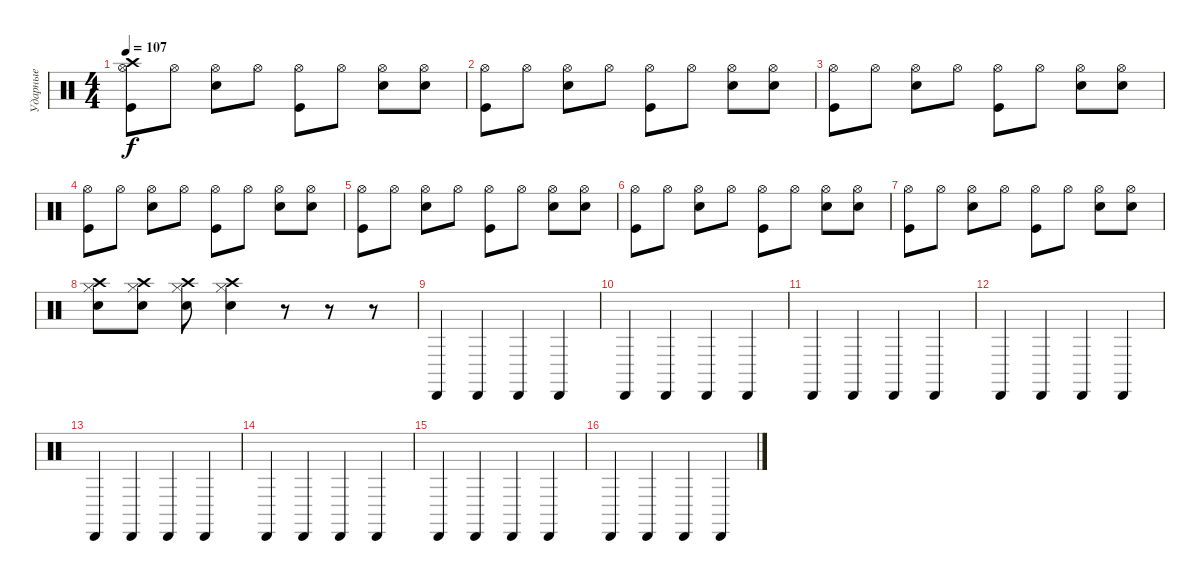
\track ("Ударные" "Ударные") {instrument percussion}
\staff {score}
\articulation defaults
\ts (4 4)
\tempo 107
\clef neutral
\ks c
("Crash high (hit)" "Hi-Hat (open)" "Kick (hit)").8{dy f} "Hi-Hat (open)".8 ("Hi-Hat (open)" "Electric Snare (hit)").8 "Hi-Hat (open)".8 ("Hi-Hat (open)" "Kick (hit)").8 "Hi-Hat (open)".8 ("Hi-Hat (open)" "Electric Snare (hit)").8 ("Hi-Hat (open)" "Electric Snare (hit)").8 |
("Hi-Hat (open)" "Kick (hit)").8 "Hi-Hat (open)".8 ("Hi-Hat (open)" "Electric Snare (hit)").8 "Hi-Hat (open)".8 ("Hi-Hat (open)" "Kick (hit)").8 "Hi-Hat (open)".8 ("Hi-Hat (open)" "Electric Snare (hit)").8 ("Hi-Hat (open)" "Electric Snare (hit)").8 |
("Hi-Hat (open)" "Kick (hit)").8 "Hi-Hat (open)".8 ("Hi-Hat (open)" "Electric Snare (hit)").8 "Hi-Hat (open)".8 ("Hi-Hat (open)" "Kick (hit)").8 "Hi-Hat (open)".8 ("Hi-Hat (open)" "Electric Snare (hit)").8 ("Hi-Hat (open)" "Electric Snare (hit)").8 |
("Hi-Hat (open)" "Kick (hit)").8 "Hi-Hat (open)".8 ("Hi-Hat (open)" "Electric Snare (hit)").8 "Hi-Hat (open)".8 ("Hi-Hat (open)" "Kick (hit)").8 "Hi-Hat (open)".8 ("Hi-Hat (open)" "Electric Snare (hit)").8 ("Hi-Hat (open)" "Electric Snare (hit)").8 |
("Hi-Hat (open)" "Kick (hit)").8 "Hi-Hat (open)".8 ("Hi-Hat (open)" "Electric Snare (hit)").8 "Hi-Hat (open)".8 ("Hi-Hat (open)" "Kick (hit)").8 "Hi-Hat (open)".8 ("Hi-Hat (open)" "Electric Snare (hit)").8 ("Hi-Hat (open)" "Electric Snare (hit)").8 |
("Hi-Hat (open)" "Kick (hit)").8 "Hi-Hat (open)".8 ("Hi-Hat (open)" "Electric Snare (hit)").8 "Hi-Hat (open)".8 ("Hi-Hat (open)" "Kick (hit)").8 "Hi-Hat (open)".8 ("Hi-Hat (open)" "Electric Snare (hit)").8 ("Hi-Hat (open)" "Electric Snare (hit)").8 |
("Hi-Hat (open)" "Kick (hit)").8 "Hi-Hat (open)".8 ("Hi-Hat (open)" "Electric Snare (hit)").8 "Hi-Hat (open)".8 ("Hi-Hat (open)" "Kick (hit)").8 "Hi-Hat (open)".8 ("Hi-Hat (open)" "Electric Snare (hit)").8 ("Hi-Hat (open)" "Electric Snare (hit)").8 |
("Crash high (hit)" "Hi-Hat (closed)" "Electric Snare (hit)").8 ("Crash high (hit)" "Hi-Hat (closed)" "Electric Snare (hit)").8 ("Crash high (hit)" "Hi-Hat (closed)" "Electric Snare (hit)").8 ("Crash high (hit)" "Hi-Hat (closed)" "Electric Snare (hit)").4 r.8 r.8 r.8 |
"Cabasa (hit)".4 "Cabasa (hit)".4 "Cabasa (hit)".4 "Cabasa (hit)".4 |
"Cabasa (hit)".4 "Cabasa (hit)".4 "Cabasa (hit)".4 "Cabasa (hit)".4 |
"Cabasa (hit)".4 "Cabasa (hit)".4 "Cabasa (hit)".4 "Cabasa (hit)".4 |
"Cabasa (hit)".4 "Cabasa (hit)".4 "Cabasa (hit)".4 "Cabasa (hit)".4 |
"Cabasa (hit)".4 "Cabasa (hit)".4 "Cabasa (hit)".4 "Cabasa (hit)".4 |
"Cabasa (hit)".4 "Cabasa (hit)".4 "Cabasa (hit)".4 "Cabasa (hit)".4 |
"Cabasa (hit)".4 "Cabasa (hit)".4 "Cabasa (hit)".4 "Cabasa (hit)".4 |
"Cabasa (hit)".4 "Cabasa (hit)".4 "Cabasa (hit)".4 "Cabasa (hit)".4
